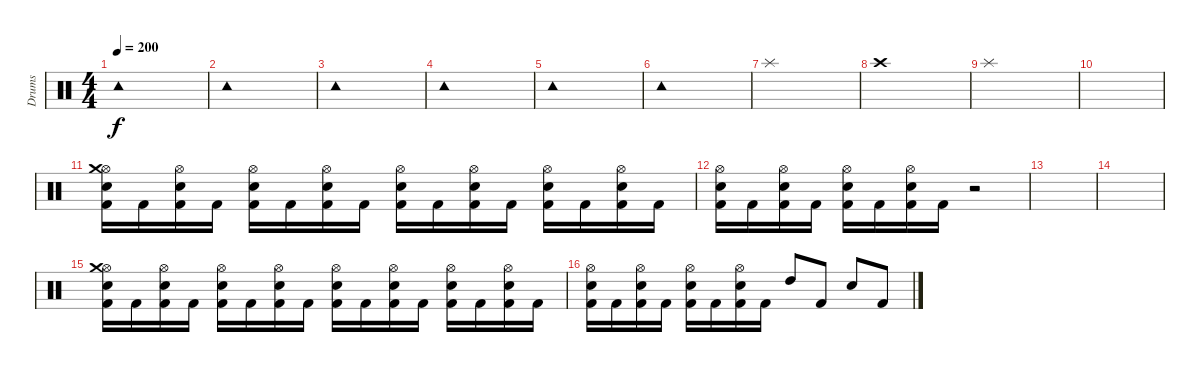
\track ("Drums" "Drums") {instrument percussion}
\staff {score}
\articulation defaults
\ts (4 4)
\tempo 200
\clef neutral
\ks c "Tambourine (hit)".1{dy f}
|
"Tambourine (hit)".1 |
"Tambourine (hit)".1 |
"Tambourine (hit)".1 |
"Tambourine (hit)".1 |
"Tambourine (hit)".1 |
"Splash (hit)".1 |
"Crash high (hit)".1 |
"Splash (hit)".1 |
|
("Hi-Hat (open)" "Crash medium (hit)" "Electric Snare (hit)" "Kick (hit) 2").16 "Kick (hit) 2".16 ("Hi-Hat (open)" "Electric Snare (hit)" "Kick (hit) 2").16 "Kick (hit) 2".16 ("Hi-Hat (open)" "Electric Snare (hit)" "Kick (hit) 2").16 "Kick (hit) 2".16 ("Hi-Hat (open)" "Electric Snare (hit)" "Kick (hit) 2").16 "Kick (hit) 2".16 ("Hi-Hat (open)" "Electric Snare (hit)" "Kick (hit) 2").16 "Kick (hit) 2".16 ("Hi-Hat (open)" "Electric Snare (hit)" "Kick (hit) 2").16 "Kick (hit) 2".16 ("Hi-Hat (open)" "Electric Snare (hit)" "Kick (hit) 2").16 "Kick (hit) 2".16 ("Hi-Hat (open)" "Electric Snare (hit)" "Kick (hit) 2").16 "Kick (hit) 2".16 |
("Hi-Hat (open)" "Electric Snare (hit)" "Kick (hit) 2").16 "Kick (hit) 2".16 ("Hi-Hat (open)" "Electric Snare (hit)" "Kick (hit) 2").16 "Kick (hit) 2".16 ("Hi-Hat (open)" "Electric Snare (hit)" "Kick (hit) 2").16 "Kick (hit) 2".16 ("Hi-Hat (open)" "Electric Snare (hit)" "Kick (hit) 2").16 "Kick (hit) 2".16 r.2 |
|
|
("Hi-Hat (open)" "Crash medium (hit)" "Electric Snare (hit)" "Kick (hit) 2").16 "Kick (hit) 2".16 ("Hi-Hat (open)" "Electric Snare (hit)" "Kick (hit) 2").16 "Kick (hit) 2".16 ("Hi-Hat (open)" "Electric Snare (hit)" "Kick (hit) 2").16 "Kick (hit) 2".16 ("Hi-Hat (open)" "Electric Snare (hit)" "Kick (hit) 2").16 "Kick (hit) 2".16 ("Hi-Hat (open)" "Electric Snare (hit)" "Kick (hit) 2").16 "Kick (hit) 2".16 ("Hi-Hat (open)" "Electric Snare (hit)" "Kick (hit) 2").16 "Kick (hit) 2".16 ("Hi-Hat (open)" "Electric Snare (hit)" "Kick (hit) 2").16 "Kick (hit) 2".16 ("Hi-Hat (open)" "Electric Snare (hit)" "Kick (hit) 2").16 "Kick (hit) 2".16 |
("Hi-Hat (open)" "Electric Snare (hit)" "Kick (hit) 2").16 "Kick (hit) 2".16 ("Hi-Hat (open)" "Electric Snare (hit)" "Kick (hit) 2").16 "Kick (hit) 2".16 ("Hi-Hat (open)" "Electric Snare (hit)" "Kick (hit) 2").16 "Kick (hit) 2".16 ("Hi-Hat (open)" "Electric Snare (hit)" "Kick (hit) 2").16 "Kick (hit) 2".16 "High Tom (hit)".8 "Kick (hit) 2".8 "Electric Snare (hit)".8 "Kick (hit) 2".8
